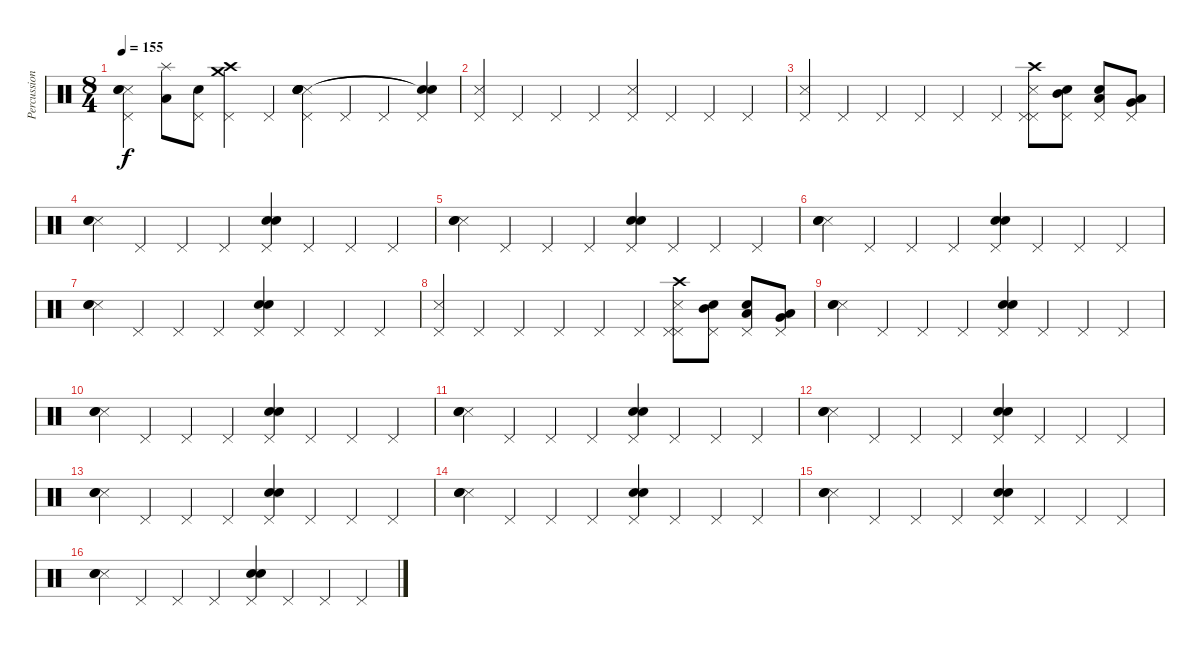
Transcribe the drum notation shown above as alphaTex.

\track ("Percussion" "Percussion") {instrument percussion}
\staff {score}
\articulation defaults
\ts (8 4)
\tempo 155
\clef neutral
\ks c
("Snare (side stick) 3" "Pedal Hi-Hat (hit)" "Electric Snare (hit)" "Snare (hit) 2").4{dy f} ("Low Tom (hit)" "Splash (hit)").8 ("Pedal Hi-Hat (hit)" "Electric Snare (hit)").8 ("Pedal Hi-Hat (hit)" "Crash medium (hit)" "Crash high (hit)").4 "Pedal Hi-Hat (hit)".4 ("Pedal Hi-Hat (hit)" "Snare (side stick) 3" "Electric Snare (hit)" "Snare (hit) 2" "Snare (hit)"{t} "Snare (hit)"{t}).4 "Pedal Hi-Hat (hit)".4 "Pedal Hi-Hat (hit)".4 ("Pedal Hi-Hat (hit)" "Snare (hit)"{t} "Snare (hit)"{t}).4 |
("Snare (side stick) 3" "Pedal Hi-Hat (hit)").4 "Pedal Hi-Hat (hit)".4 "Pedal Hi-Hat (hit)".4 "Pedal Hi-Hat (hit)".4 ("Pedal Hi-Hat (hit)" "Snare (side stick) 3").4 "Pedal Hi-Hat (hit)".4 "Pedal Hi-Hat (hit)".4 "Pedal Hi-Hat (hit)".4 |
("Snare (side stick) 3" "Pedal Hi-Hat (hit)").4 "Pedal Hi-Hat (hit)".4 "Pedal Hi-Hat (hit)".4 "Pedal Hi-Hat (hit)".4 "Pedal Hi-Hat (hit)".4 "Pedal Hi-Hat (hit)".4 ("Pedal Hi-Hat (hit)" "Snare (side stick) 3" "Pedal Hi-Hat (hit)" "Crash high (hit)").8 ("Pedal Hi-Hat (hit)" "Snare (hit) 2" "Mid Tom (hit)").8 ("Pedal Hi-Hat (hit)" "Electric Snare (hit)" "Low Tom (hit)").8 ("Pedal Hi-Hat (hit)" "Low Floor Tom (hit)" "Very Low Tom (hit)").8 |
("Snare (side stick) 3" "Electric Snare (hit)" "Snare (hit) 2").4 "Pedal Hi-Hat (hit)".4 "Pedal Hi-Hat (hit)".4 "Pedal Hi-Hat (hit)".4 ("Pedal Hi-Hat (hit)" "Electric Snare (hit)" "Snare (hit) 2").4 "Pedal Hi-Hat (hit)".4 "Pedal Hi-Hat (hit)".4 "Pedal Hi-Hat (hit)".4 |
("Snare (side stick) 3" "Electric Snare (hit)" "Snare (hit) 2").4 "Pedal Hi-Hat (hit)".4 "Pedal Hi-Hat (hit)".4 "Pedal Hi-Hat (hit)".4 ("Pedal Hi-Hat (hit)" "Electric Snare (hit)" "Snare (hit) 2").4 "Pedal Hi-Hat (hit)".4 "Pedal Hi-Hat (hit)".4 "Pedal Hi-Hat (hit)".4 |
("Snare (side stick) 3" "Electric Snare (hit)" "Snare (hit) 2").4 "Pedal Hi-Hat (hit)".4 "Pedal Hi-Hat (hit)".4 "Pedal Hi-Hat (hit)".4 ("Pedal Hi-Hat (hit)" "Electric Snare (hit)" "Snare (hit) 2").4 "Pedal Hi-Hat (hit)".4 "Pedal Hi-Hat (hit)".4 "Pedal Hi-Hat (hit)".4 |
("Snare (side stick) 3" "Electric Snare (hit)" "Snare (hit) 2").4 "Pedal Hi-Hat (hit)".4 "Pedal Hi-Hat (hit)".4 "Pedal Hi-Hat (hit)".4 ("Pedal Hi-Hat (hit)" "Electric Snare (hit)" "Snare (hit) 2").4 "Pedal Hi-Hat (hit)".4 "Pedal Hi-Hat (hit)".4 "Pedal Hi-Hat (hit)".4 |
("Snare (side stick) 3" "Pedal Hi-Hat (hit)").4 "Pedal Hi-Hat (hit)".4 "Pedal Hi-Hat (hit)".4 "Pedal Hi-Hat (hit)".4 "Pedal Hi-Hat (hit)".4 "Pedal Hi-Hat (hit)".4 ("Pedal Hi-Hat (hit)" "Snare (side stick) 3" "Pedal Hi-Hat (hit)" "Crash high (hit)").8 ("Pedal Hi-Hat (hit)" "Snare (hit) 2" "Mid Tom (hit)").8 ("Pedal Hi-Hat (hit)" "Electric Snare (hit)" "Low Tom (hit)").8 ("Pedal Hi-Hat (hit)" "Low Floor Tom (hit)" "Very Low Tom (hit)").8 |
("Snare (side stick) 3" "Electric Snare (hit)" "Snare (hit) 2").4 "Pedal Hi-Hat (hit)".4 "Pedal Hi-Hat (hit)".4 "Pedal Hi-Hat (hit)".4 ("Pedal Hi-Hat (hit)" "Electric Snare (hit)" "Snare (hit) 2").4 "Pedal Hi-Hat (hit)".4 "Pedal Hi-Hat (hit)".4 "Pedal Hi-Hat (hit)".4 |
("Snare (side stick) 3" "Electric Snare (hit)" "Snare (hit) 2").4 "Pedal Hi-Hat (hit)".4 "Pedal Hi-Hat (hit)".4 "Pedal Hi-Hat (hit)".4 ("Pedal Hi-Hat (hit)" "Electric Snare (hit)" "Snare (hit) 2").4 "Pedal Hi-Hat (hit)".4 "Pedal Hi-Hat (hit)".4 "Pedal Hi-Hat (hit)".4 |
("Snare (side stick) 3" "Electric Snare (hit)" "Snare (hit) 2").4 "Pedal Hi-Hat (hit)".4 "Pedal Hi-Hat (hit)".4 "Pedal Hi-Hat (hit)".4 ("Pedal Hi-Hat (hit)" "Electric Snare (hit)" "Snare (hit) 2").4 "Pedal Hi-Hat (hit)".4 "Pedal Hi-Hat (hit)".4 "Pedal Hi-Hat (hit)".4 |
("Snare (side stick) 3" "Electric Snare (hit)" "Snare (hit) 2").4 "Pedal Hi-Hat (hit)".4 "Pedal Hi-Hat (hit)".4 "Pedal Hi-Hat (hit)".4 ("Pedal Hi-Hat (hit)" "Electric Snare (hit)" "Snare (hit) 2").4 "Pedal Hi-Hat (hit)".4 "Pedal Hi-Hat (hit)".4 "Pedal Hi-Hat (hit)".4 |
("Snare (side stick) 3" "Electric Snare (hit)" "Snare (hit) 2").4 "Pedal Hi-Hat (hit)".4 "Pedal Hi-Hat (hit)".4 "Pedal Hi-Hat (hit)".4 ("Pedal Hi-Hat (hit)" "Electric Snare (hit)" "Snare (hit) 2").4 "Pedal Hi-Hat (hit)".4 "Pedal Hi-Hat (hit)".4 "Pedal Hi-Hat (hit)".4 |
("Snare (side stick) 3" "Electric Snare (hit)" "Snare (hit) 2").4 "Pedal Hi-Hat (hit)".4 "Pedal Hi-Hat (hit)".4 "Pedal Hi-Hat (hit)".4 ("Pedal Hi-Hat (hit)" "Electric Snare (hit)" "Snare (hit) 2").4 "Pedal Hi-Hat (hit)".4 "Pedal Hi-Hat (hit)".4 "Pedal Hi-Hat (hit)".4 |
("Snare (side stick) 3" "Electric Snare (hit)" "Snare (hit) 2").4 "Pedal Hi-Hat (hit)".4 "Pedal Hi-Hat (hit)".4 "Pedal Hi-Hat (hit)".4 ("Pedal Hi-Hat (hit)" "Electric Snare (hit)" "Snare (hit) 2").4 "Pedal Hi-Hat (hit)".4 "Pedal Hi-Hat (hit)".4 "Pedal Hi-Hat (hit)".4 |
("Snare (side stick) 3" "Electric Snare (hit)" "Snare (hit) 2").4 "Pedal Hi-Hat (hit)".4 "Pedal Hi-Hat (hit)".4 "Pedal Hi-Hat (hit)".4 ("Pedal Hi-Hat (hit)" "Electric Snare (hit)" "Snare (hit) 2").4 "Pedal Hi-Hat (hit)".4 "Pedal Hi-Hat (hit)".4 "Pedal Hi-Hat (hit)".4
